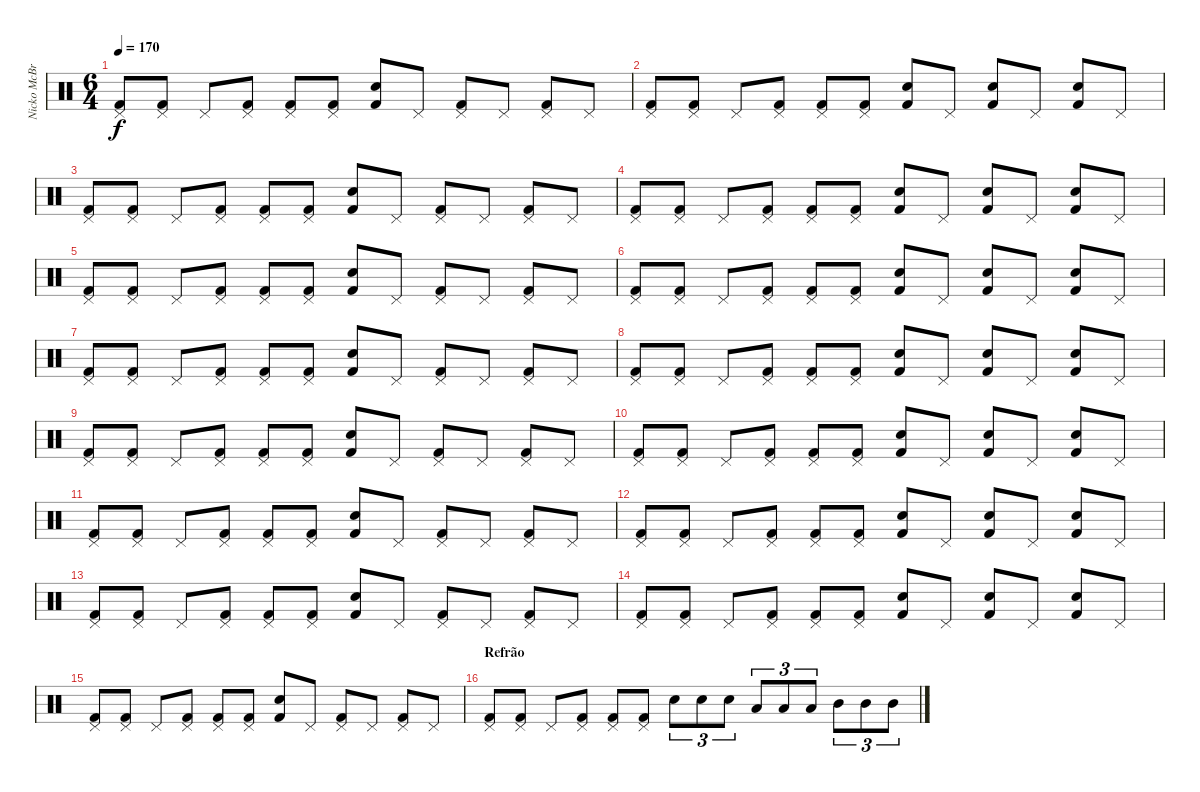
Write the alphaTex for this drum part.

\track ("Nicko McBrain" "Nicko McBr") {instrument percussion}
\staff {score}
\articulation defaults
\ts (6 4)
\tempo 170
\clef neutral
\ks c
("Pedal Hi-Hat (hit)" "Kick (hit) 2").8{dy f balance 15} ("Pedal Hi-Hat (hit)" "Kick (hit) 2").8 "Pedal Hi-Hat (hit)".8 ("Pedal Hi-Hat (hit)" "Kick (hit) 2").8 ("Pedal Hi-Hat (hit)" "Kick (hit) 2").8 ("Pedal Hi-Hat (hit)" "Kick (hit) 2").8 ("Snare (hit) 2" "Kick (hit) 2").8 "Pedal Hi-Hat (hit)".8 ("Pedal Hi-Hat (hit)" "Kick (hit) 2").8 "Pedal Hi-Hat (hit)".8 ("Pedal Hi-Hat (hit)" "Kick (hit) 2").8 "Pedal Hi-Hat (hit)".8 |
("Pedal Hi-Hat (hit)" "Kick (hit) 2").8 ("Pedal Hi-Hat (hit)" "Kick (hit) 2").8 "Pedal Hi-Hat (hit)".8 ("Pedal Hi-Hat (hit)" "Kick (hit) 2").8 ("Pedal Hi-Hat (hit)" "Kick (hit) 2").8 ("Pedal Hi-Hat (hit)" "Kick (hit) 2").8 ("Snare (hit) 2" "Kick (hit) 2").8 "Pedal Hi-Hat (hit)".8 ("Snare (hit) 2" "Kick (hit) 2").8 "Pedal Hi-Hat (hit)".8 ("Snare (hit) 2" "Kick (hit) 2").8 "Pedal Hi-Hat (hit)".8 |
("Pedal Hi-Hat (hit)" "Kick (hit) 2").8 ("Pedal Hi-Hat (hit)" "Kick (hit) 2").8 "Pedal Hi-Hat (hit)".8 ("Pedal Hi-Hat (hit)" "Kick (hit) 2").8 ("Pedal Hi-Hat (hit)" "Kick (hit) 2").8 ("Pedal Hi-Hat (hit)" "Kick (hit) 2").8 ("Snare (hit) 2" "Kick (hit) 2").8 "Pedal Hi-Hat (hit)".8 ("Pedal Hi-Hat (hit)" "Kick (hit) 2").8 "Pedal Hi-Hat (hit)".8 ("Pedal Hi-Hat (hit)" "Kick (hit) 2").8 "Pedal Hi-Hat (hit)".8 |
("Pedal Hi-Hat (hit)" "Kick (hit) 2").8 ("Pedal Hi-Hat (hit)" "Kick (hit) 2").8 "Pedal Hi-Hat (hit)".8 ("Pedal Hi-Hat (hit)" "Kick (hit) 2").8 ("Pedal Hi-Hat (hit)" "Kick (hit) 2").8 ("Pedal Hi-Hat (hit)" "Kick (hit) 2").8 ("Snare (hit) 2" "Kick (hit) 2").8 "Pedal Hi-Hat (hit)".8 ("Snare (hit) 2" "Kick (hit) 2").8 "Pedal Hi-Hat (hit)".8 ("Snare (hit) 2" "Kick (hit) 2").8 "Pedal Hi-Hat (hit)".8 |
("Pedal Hi-Hat (hit)" "Kick (hit) 2").8 ("Pedal Hi-Hat (hit)" "Kick (hit) 2").8 "Pedal Hi-Hat (hit)".8 ("Pedal Hi-Hat (hit)" "Kick (hit) 2").8 ("Pedal Hi-Hat (hit)" "Kick (hit) 2").8 ("Pedal Hi-Hat (hit)" "Kick (hit) 2").8 ("Snare (hit) 2" "Kick (hit) 2").8 "Pedal Hi-Hat (hit)".8 ("Pedal Hi-Hat (hit)" "Kick (hit) 2").8 "Pedal Hi-Hat (hit)".8 ("Pedal Hi-Hat (hit)" "Kick (hit) 2").8 "Pedal Hi-Hat (hit)".8 |
("Pedal Hi-Hat (hit)" "Kick (hit) 2").8 ("Pedal Hi-Hat (hit)" "Kick (hit) 2").8 "Pedal Hi-Hat (hit)".8 ("Pedal Hi-Hat (hit)" "Kick (hit) 2").8 ("Pedal Hi-Hat (hit)" "Kick (hit) 2").8 ("Pedal Hi-Hat (hit)" "Kick (hit) 2").8 ("Snare (hit) 2" "Kick (hit) 2").8 "Pedal Hi-Hat (hit)".8 ("Snare (hit) 2" "Kick (hit) 2").8 "Pedal Hi-Hat (hit)".8 ("Snare (hit) 2" "Kick (hit) 2").8 "Pedal Hi-Hat (hit)".8 |
("Pedal Hi-Hat (hit)" "Kick (hit) 2").8 ("Pedal Hi-Hat (hit)" "Kick (hit) 2").8 "Pedal Hi-Hat (hit)".8 ("Pedal Hi-Hat (hit)" "Kick (hit) 2").8 ("Pedal Hi-Hat (hit)" "Kick (hit) 2").8 ("Pedal Hi-Hat (hit)" "Kick (hit) 2").8 ("Snare (hit) 2" "Kick (hit) 2").8 "Pedal Hi-Hat (hit)".8 ("Pedal Hi-Hat (hit)" "Kick (hit) 2").8 "Pedal Hi-Hat (hit)".8 ("Pedal Hi-Hat (hit)" "Kick (hit) 2").8 "Pedal Hi-Hat (hit)".8 |
("Pedal Hi-Hat (hit)" "Kick (hit) 2").8 ("Pedal Hi-Hat (hit)" "Kick (hit) 2").8 "Pedal Hi-Hat (hit)".8 ("Pedal Hi-Hat (hit)" "Kick (hit) 2").8 ("Pedal Hi-Hat (hit)" "Kick (hit) 2").8 ("Pedal Hi-Hat (hit)" "Kick (hit) 2").8 ("Snare (hit) 2" "Kick (hit) 2").8 "Pedal Hi-Hat (hit)".8 ("Snare (hit) 2" "Kick (hit) 2").8 "Pedal Hi-Hat (hit)".8 ("Snare (hit) 2" "Kick (hit) 2").8 "Pedal Hi-Hat (hit)".8 |
("Pedal Hi-Hat (hit)" "Kick (hit) 2").8 ("Pedal Hi-Hat (hit)" "Kick (hit) 2").8 "Pedal Hi-Hat (hit)".8 ("Pedal Hi-Hat (hit)" "Kick (hit) 2").8 ("Pedal Hi-Hat (hit)" "Kick (hit) 2").8 ("Pedal Hi-Hat (hit)" "Kick (hit) 2").8 ("Snare (hit) 2" "Kick (hit) 2").8 "Pedal Hi-Hat (hit)".8 ("Pedal Hi-Hat (hit)" "Kick (hit) 2").8 "Pedal Hi-Hat (hit)".8 ("Pedal Hi-Hat (hit)" "Kick (hit) 2").8 "Pedal Hi-Hat (hit)".8 |
("Pedal Hi-Hat (hit)" "Kick (hit) 2").8 ("Pedal Hi-Hat (hit)" "Kick (hit) 2").8 "Pedal Hi-Hat (hit)".8 ("Pedal Hi-Hat (hit)" "Kick (hit) 2").8 ("Pedal Hi-Hat (hit)" "Kick (hit) 2").8 ("Pedal Hi-Hat (hit)" "Kick (hit) 2").8 ("Snare (hit) 2" "Kick (hit) 2").8 "Pedal Hi-Hat (hit)".8 ("Snare (hit) 2" "Kick (hit) 2").8 "Pedal Hi-Hat (hit)".8 ("Snare (hit) 2" "Kick (hit) 2").8 "Pedal Hi-Hat (hit)".8 |
("Pedal Hi-Hat (hit)" "Kick (hit) 2").8 ("Pedal Hi-Hat (hit)" "Kick (hit) 2").8 "Pedal Hi-Hat (hit)".8 ("Pedal Hi-Hat (hit)" "Kick (hit) 2").8 ("Pedal Hi-Hat (hit)" "Kick (hit) 2").8 ("Pedal Hi-Hat (hit)" "Kick (hit) 2").8 ("Snare (hit) 2" "Kick (hit) 2").8 "Pedal Hi-Hat (hit)".8 ("Pedal Hi-Hat (hit)" "Kick (hit) 2").8 "Pedal Hi-Hat (hit)".8 ("Pedal Hi-Hat (hit)" "Kick (hit) 2").8 "Pedal Hi-Hat (hit)".8 |
("Pedal Hi-Hat (hit)" "Kick (hit) 2").8 ("Pedal Hi-Hat (hit)" "Kick (hit) 2").8 "Pedal Hi-Hat (hit)".8 ("Pedal Hi-Hat (hit)" "Kick (hit) 2").8 ("Pedal Hi-Hat (hit)" "Kick (hit) 2").8 ("Pedal Hi-Hat (hit)" "Kick (hit) 2").8 ("Snare (hit) 2" "Kick (hit) 2").8 "Pedal Hi-Hat (hit)".8 ("Snare (hit) 2" "Kick (hit) 2").8 "Pedal Hi-Hat (hit)".8 ("Snare (hit) 2" "Kick (hit) 2").8 "Pedal Hi-Hat (hit)".8 |
("Pedal Hi-Hat (hit)" "Kick (hit) 2").8 ("Pedal Hi-Hat (hit)" "Kick (hit) 2").8 "Pedal Hi-Hat (hit)".8 ("Pedal Hi-Hat (hit)" "Kick (hit) 2").8 ("Pedal Hi-Hat (hit)" "Kick (hit) 2").8 ("Pedal Hi-Hat (hit)" "Kick (hit) 2").8 ("Snare (hit) 2" "Kick (hit) 2").8 "Pedal Hi-Hat (hit)".8 ("Pedal Hi-Hat (hit)" "Kick (hit) 2").8 "Pedal Hi-Hat (hit)".8 ("Pedal Hi-Hat (hit)" "Kick (hit) 2").8 "Pedal Hi-Hat (hit)".8 |
("Pedal Hi-Hat (hit)" "Kick (hit) 2").8 ("Pedal Hi-Hat (hit)" "Kick (hit) 2").8 "Pedal Hi-Hat (hit)".8 ("Pedal Hi-Hat (hit)" "Kick (hit) 2").8 ("Pedal Hi-Hat (hit)" "Kick (hit) 2").8 ("Pedal Hi-Hat (hit)" "Kick (hit) 2").8 ("Snare (hit) 2" "Kick (hit) 2").8 "Pedal Hi-Hat (hit)".8 ("Snare (hit) 2" "Kick (hit) 2").8 "Pedal Hi-Hat (hit)".8 ("Snare (hit) 2" "Kick (hit) 2").8 "Pedal Hi-Hat (hit)".8 |
("Pedal Hi-Hat (hit)" "Kick (hit) 2").8 ("Pedal Hi-Hat (hit)" "Kick (hit) 2").8 "Pedal Hi-Hat (hit)".8 ("Pedal Hi-Hat (hit)" "Kick (hit) 2").8 ("Pedal Hi-Hat (hit)" "Kick (hit) 2").8 ("Pedal Hi-Hat (hit)" "Kick (hit) 2").8 ("Snare (hit) 2" "Kick (hit) 2").8 "Pedal Hi-Hat (hit)".8 ("Pedal Hi-Hat (hit)" "Kick (hit) 2").8 "Pedal Hi-Hat (hit)".8 ("Pedal Hi-Hat (hit)" "Kick (hit) 2").8 "Pedal Hi-Hat (hit)".8 |
\section ("" "Refrão")
("Pedal Hi-Hat (hit)" "Kick (hit) 2").8 ("Pedal Hi-Hat (hit)" "Kick (hit) 2").8 "Pedal Hi-Hat (hit)".8 ("Pedal Hi-Hat (hit)" "Kick (hit) 2").8 ("Pedal Hi-Hat (hit)" "Kick (hit) 2").8 ("Pedal Hi-Hat (hit)" "Kick (hit) 2").8 "Snare (hit) 2".8{tu (3 2)} "Snare (hit) 2".8{tu (3 2)} "Snare (hit) 2".8{tu (3 2)} "Low Tom (hit)".8{tu (3 2)} "Low Tom (hit)".8{tu (3 2)} "Low Tom (hit)".8{tu (3 2)} "Mid Tom (hit)".8{tu (3 2)} "Mid Tom (hit)".8{tu (3 2)} "Mid Tom (hit)".8{tu (3 2)}
